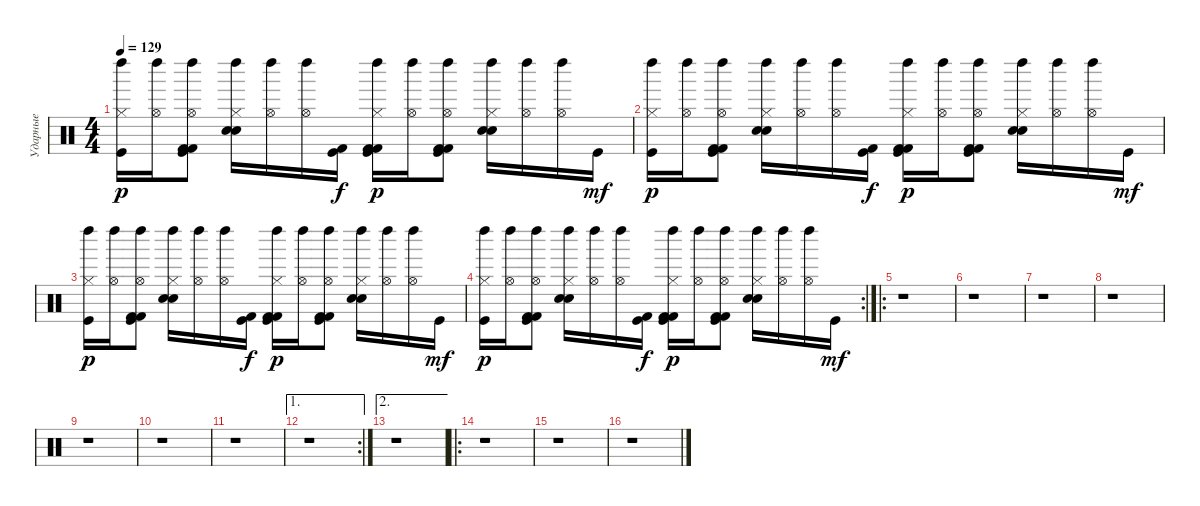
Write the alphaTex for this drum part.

\track ("Ударные" "Ударные") {instrument percussion}
\staff {score}
\articulation defaults
\ts (4 4)
\tempo 129
\clef neutral
\ks c
("Kick (hit)" "Hi-Hat (closed)" "Left Maraca (hit)").16{dy p} ("Left Maraca (hit)" "Hi-Hat (open)").16 ("Kick (hit)" "Kick (hit) 2" "Kick (hit) 2" "Left Maraca (hit)" "Hi-Hat (open)").8 ("Snare (hit) 2" "Electric Snare (hit)" "Hi-Hat (closed)" "Left Maraca (hit)").16 ("Left Maraca (hit)" "Hi-Hat (open)").16 ("Left Maraca (hit)" "Hi-Hat (open)").16 ("Kick (hit)" "Kick (hit) 2").16{dy f} ("Kick (hit)" "Kick (hit) 2" "Kick (hit) 2" "Hi-Hat (closed)" "Left Maraca (hit)").16{dy p} ("Left Maraca (hit)" "Hi-Hat (open)").16 ("Kick (hit)" "Kick (hit) 2" "Kick (hit) 2" "Left Maraca (hit)" "Hi-Hat (open)").8 ("Snare (hit) 2" "Electric Snare (hit)" "Hi-Hat (closed)" "Left Maraca (hit)").16 ("Left Maraca (hit)" "Hi-Hat (open)").16 ("Left Maraca (hit)" "Hi-Hat (open)").16 "Kick (hit)".16{dy mf} |
("Kick (hit)" "Hi-Hat (closed)" "Left Maraca (hit)").16{dy p} ("Left Maraca (hit)" "Hi-Hat (open)").16 ("Kick (hit)" "Kick (hit) 2" "Kick (hit) 2" "Left Maraca (hit)" "Hi-Hat (open)").8 ("Snare (hit) 2" "Electric Snare (hit)" "Hi-Hat (closed)" "Left Maraca (hit)").16 ("Left Maraca (hit)" "Hi-Hat (open)").16 ("Left Maraca (hit)" "Hi-Hat (open)").16 ("Kick (hit)" "Kick (hit) 2").16{dy f} ("Kick (hit)" "Kick (hit) 2" "Kick (hit) 2" "Hi-Hat (closed)" "Left Maraca (hit)").16{dy p} ("Left Maraca (hit)" "Hi-Hat (open)").16 ("Kick (hit)" "Kick (hit) 2" "Kick (hit) 2" "Left Maraca (hit)" "Hi-Hat (open)").8 ("Snare (hit) 2" "Electric Snare (hit)" "Hi-Hat (closed)" "Left Maraca (hit)").16 ("Left Maraca (hit)" "Hi-Hat (open)").16 ("Left Maraca (hit)" "Hi-Hat (open)").16 "Kick (hit)".16{dy mf} |
("Kick (hit)" "Hi-Hat (closed)" "Left Maraca (hit)").16{dy p} ("Left Maraca (hit)" "Hi-Hat (open)").16 ("Kick (hit)" "Kick (hit) 2" "Kick (hit) 2" "Left Maraca (hit)" "Hi-Hat (open)").8 ("Snare (hit) 2" "Electric Snare (hit)" "Hi-Hat (closed)" "Left Maraca (hit)").16 ("Left Maraca (hit)" "Hi-Hat (open)").16 ("Left Maraca (hit)" "Hi-Hat (open)").16 ("Kick (hit)" "Kick (hit) 2").16{dy f} ("Kick (hit)" "Kick (hit) 2" "Kick (hit) 2" "Hi-Hat (closed)" "Left Maraca (hit)").16{dy p} ("Left Maraca (hit)" "Hi-Hat (open)").16 ("Kick (hit)" "Kick (hit) 2" "Kick (hit) 2" "Left Maraca (hit)" "Hi-Hat (open)").8 ("Snare (hit) 2" "Electric Snare (hit)" "Hi-Hat (closed)" "Left Maraca (hit)").16 ("Left Maraca (hit)" "Hi-Hat (open)").16 ("Left Maraca (hit)" "Hi-Hat (open)").16 "Kick (hit)".16{dy mf} |
\rc 2
("Kick (hit)" "Hi-Hat (closed)" "Left Maraca (hit)").16{dy p} ("Left Maraca (hit)" "Hi-Hat (open)").16 ("Kick (hit)" "Kick (hit) 2" "Kick (hit) 2" "Left Maraca (hit)" "Hi-Hat (open)").8 ("Snare (hit) 2" "Electric Snare (hit)" "Hi-Hat (closed)" "Left Maraca (hit)").16 ("Left Maraca (hit)" "Hi-Hat (open)").16 ("Left Maraca (hit)" "Hi-Hat (open)").16 ("Kick (hit)" "Kick (hit) 2").16{dy f} ("Kick (hit)" "Kick (hit) 2" "Kick (hit) 2" "Hi-Hat (closed)" "Left Maraca (hit)").16{dy p} ("Left Maraca (hit)" "Hi-Hat (open)").16 ("Kick (hit)" "Kick (hit) 2" "Kick (hit) 2" "Left Maraca (hit)" "Hi-Hat (open)").8 ("Snare (hit) 2" "Electric Snare (hit)" "Hi-Hat (closed)" "Left Maraca (hit)").16 ("Left Maraca (hit)" "Hi-Hat (open)").16 ("Left Maraca (hit)" "Hi-Hat (open)").16 "Kick (hit)".16{dy mf} |
\ro
r.1 |
r.1 |
r.1 |
r.1 |
r.1 |
r.1 |
r.1 |
\ae 1
\rc 2
r.1 |
\ae 2
r.1 |
\ro
r.1 |
r.1 |
r.1
